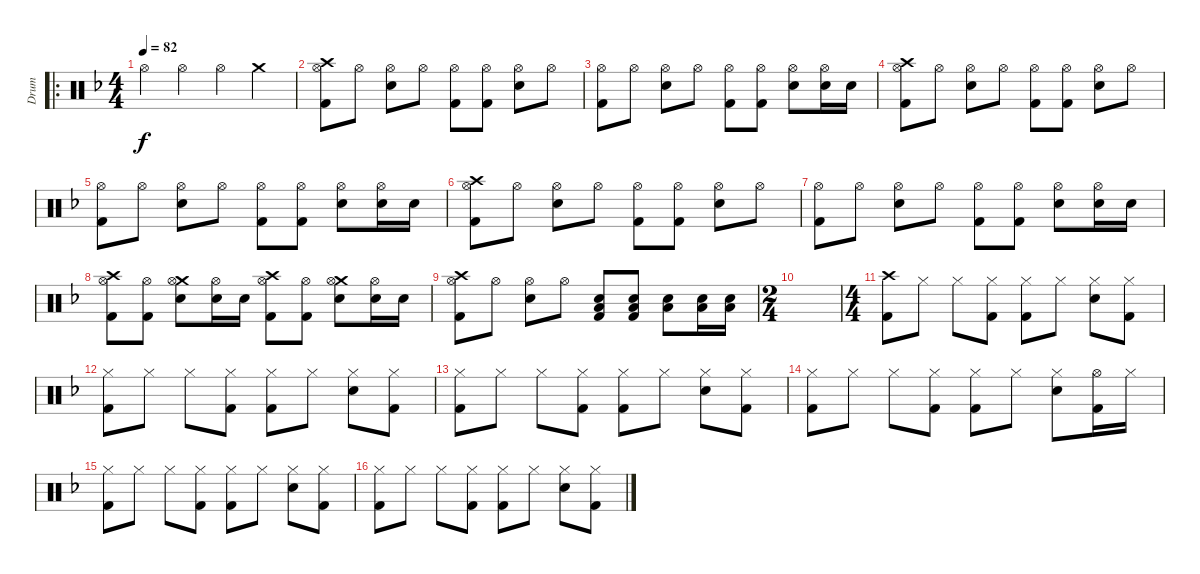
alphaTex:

\track ("Drum" "Drum") {instrument percussion}
\staff {score}
\articulation defaults
\ro
\ts (4 4)
\tempo 82
\clef neutral
\ks f "Hi-Hat (open)".4{dy f} "Hi-Hat (open)".4 "Hi-Hat (open)".4 "Crash medium (hit)".4
|
("Crash high (hit)" "Hi-Hat (open)" "Kick (hit) 2").8 "Hi-Hat (open)".8 ("Hi-Hat (open)" "Electric Snare (hit)").8 "Hi-Hat (open)".8 ("Hi-Hat (open)" "Kick (hit) 2").8 ("Hi-Hat (open)" "Kick (hit) 2").8 ("Hi-Hat (open)" "Electric Snare (hit)").8 "Hi-Hat (open)".8 |
("Hi-Hat (open)" "Kick (hit) 2").8 "Hi-Hat (open)".8 ("Hi-Hat (open)" "Electric Snare (hit)").8 "Hi-Hat (open)".8 ("Hi-Hat (open)" "Kick (hit) 2").8 ("Hi-Hat (open)" "Kick (hit) 2").8 ("Hi-Hat (open)" "Electric Snare (hit)").8 ("Hi-Hat (open)" "Electric Snare (hit)").16 "Electric Snare (hit)".16 |
("Crash high (hit)" "Hi-Hat (open)" "Kick (hit) 2").8 "Hi-Hat (open)".8 ("Hi-Hat (open)" "Electric Snare (hit)").8 "Hi-Hat (open)".8 ("Hi-Hat (open)" "Kick (hit) 2").8 ("Hi-Hat (open)" "Kick (hit) 2").8 ("Hi-Hat (open)" "Electric Snare (hit)").8 "Hi-Hat (open)".8 |
("Hi-Hat (open)" "Kick (hit) 2").8 "Hi-Hat (open)".8 ("Hi-Hat (open)" "Electric Snare (hit)").8 "Hi-Hat (open)".8 ("Hi-Hat (open)" "Kick (hit) 2").8 ("Hi-Hat (open)" "Kick (hit) 2").8 ("Hi-Hat (open)" "Electric Snare (hit)").8 ("Hi-Hat (open)" "Electric Snare (hit)").16 "Electric Snare (hit)".16 |
("Crash high (hit)" "Hi-Hat (open)" "Kick (hit) 2").8 "Hi-Hat (open)".8 ("Hi-Hat (open)" "Electric Snare (hit)").8 "Hi-Hat (open)".8 ("Hi-Hat (open)" "Kick (hit) 2").8 ("Hi-Hat (open)" "Kick (hit) 2").8 ("Hi-Hat (open)" "Electric Snare (hit)").8 "Hi-Hat (open)".8 |
("Hi-Hat (open)" "Kick (hit) 2").8 "Hi-Hat (open)".8 ("Hi-Hat (open)" "Electric Snare (hit)").8 "Hi-Hat (open)".8 ("Hi-Hat (open)" "Kick (hit) 2").8 ("Hi-Hat (open)" "Kick (hit) 2").8 ("Hi-Hat (open)" "Electric Snare (hit)").8 ("Hi-Hat (open)" "Electric Snare (hit)").16 "Electric Snare (hit)".16 |
("Crash high (hit)" "Hi-Hat (open)" "Kick (hit) 2").8 ("Hi-Hat (open)" "Kick (hit) 2").8 ("Crash medium (hit)" "Hi-Hat (open)" "Electric Snare (hit)").8 ("Hi-Hat (open)" "Electric Snare (hit)").16 "Electric Snare (hit)".16 ("Crash high (hit)" "Hi-Hat (open)" "Kick (hit) 2").8 ("Hi-Hat (open)" "Kick (hit) 2").8 ("Crash medium (hit)" "Hi-Hat (open)" "Electric Snare (hit)").8 ("Hi-Hat (open)" "Electric Snare (hit)").16 "Electric Snare (hit)".16 |
("Crash high (hit)" "Hi-Hat (open)" "Kick (hit) 2").8 "Hi-Hat (open)".8 ("Hi-Hat (open)" "Electric Snare (hit)").8 "Hi-Hat (open)".8 ("Low Floor Tom (hit)" "Electric Snare (hit)" "Kick (hit) 2").8 ("Low Floor Tom (hit)" "Electric Snare (hit)" "Kick (hit) 2").8 ("Low Floor Tom (hit)" "Electric Snare (hit)").8 ("Low Floor Tom (hit)" "Electric Snare (hit)").16 ("Low Floor Tom (hit)" "Electric Snare (hit)").16 |
\ts (2 4)
|
\ts (4 4)
("Crash high (hit)" "Kick (hit) 2").8 "Hi-Hat (closed)".8 "Hi-Hat (closed)".8 ("Hi-Hat (closed)" "Kick (hit) 2").8 ("Hi-Hat (closed)" "Kick (hit) 2").8 "Hi-Hat (closed)".8 ("Hi-Hat (closed)" "Electric Snare (hit)").8 ("Hi-Hat (closed)" "Kick (hit) 2").8 |
("Hi-Hat (closed)" "Kick (hit) 2").8 "Hi-Hat (closed)".8 "Hi-Hat (closed)".8 ("Hi-Hat (closed)" "Kick (hit) 2").8 ("Hi-Hat (closed)" "Kick (hit) 2").8 "Hi-Hat (closed)".8 ("Hi-Hat (closed)" "Electric Snare (hit)").8 ("Hi-Hat (closed)" "Kick (hit) 2").8 |
("Hi-Hat (closed)" "Kick (hit) 2").8 "Hi-Hat (closed)".8 "Hi-Hat (closed)".8 ("Hi-Hat (closed)" "Kick (hit) 2").8 ("Hi-Hat (closed)" "Kick (hit) 2").8 "Hi-Hat (closed)".8 ("Hi-Hat (closed)" "Electric Snare (hit)").8 ("Hi-Hat (closed)" "Kick (hit) 2").8 |
("Hi-Hat (closed)" "Kick (hit) 2").8 "Hi-Hat (closed)".8 "Hi-Hat (closed)".8 ("Hi-Hat (closed)" "Kick (hit) 2").8 ("Hi-Hat (closed)" "Kick (hit) 2").8 "Hi-Hat (closed)".8 ("Hi-Hat (closed)" "Electric Snare (hit)").8 ("Hi-Hat (open)" "Kick (hit) 2").16 "Hi-Hat (closed)".16 |
("Hi-Hat (closed)" "Kick (hit) 2").8 "Hi-Hat (closed)".8 "Hi-Hat (closed)".8 ("Hi-Hat (closed)" "Kick (hit) 2").8 ("Hi-Hat (closed)" "Kick (hit) 2").8 "Hi-Hat (closed)".8 ("Hi-Hat (closed)" "Electric Snare (hit)").8 ("Hi-Hat (closed)" "Kick (hit) 2").8 |
("Hi-Hat (closed)" "Kick (hit) 2").8 "Hi-Hat (closed)".8 "Hi-Hat (closed)".8 ("Hi-Hat (closed)" "Kick (hit) 2").8 ("Hi-Hat (closed)" "Kick (hit) 2").8 "Hi-Hat (closed)".8 ("Hi-Hat (closed)" "Electric Snare (hit)").8 ("Hi-Hat (closed)" "Kick (hit) 2").8
